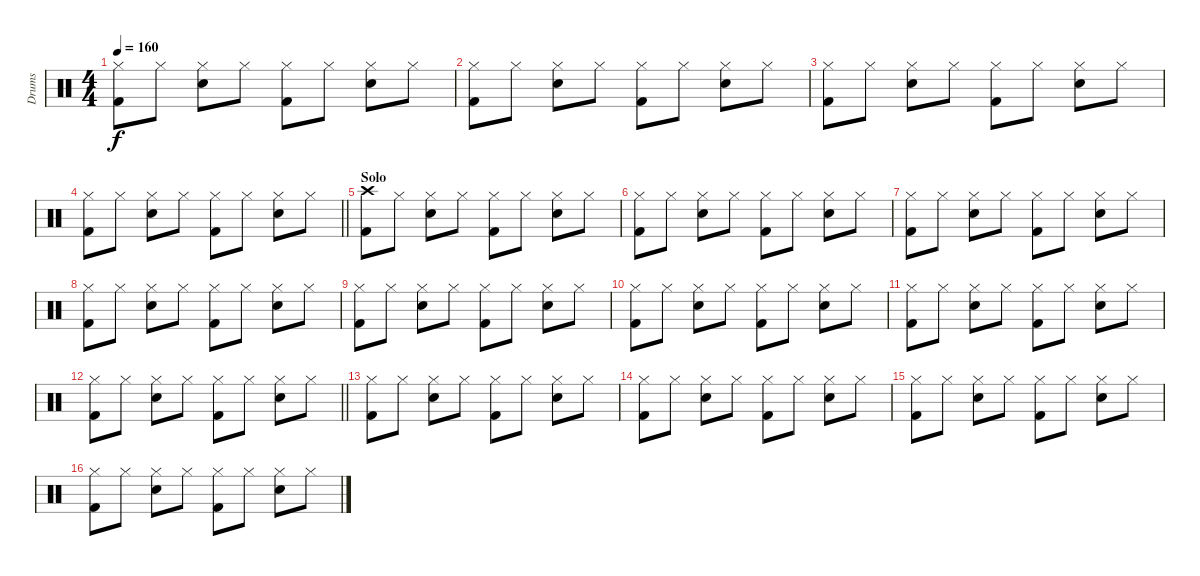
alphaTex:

\track ("Drums" "Drums") {instrument percussion}
\staff {score}
\articulation defaults
\ts (4 4)
\tempo 160
\clef neutral
\ks c
("Hi-Hat (closed)" "Kick (hit) 2").8{dy f} "Hi-Hat (closed)".8 ("Hi-Hat (closed)" "Snare (hit) 2").8 "Hi-Hat (closed)".8 ("Hi-Hat (closed)" "Kick (hit) 2").8 "Hi-Hat (closed)".8 ("Hi-Hat (closed)" "Snare (hit) 2").8 "Hi-Hat (closed)".8 |
("Hi-Hat (closed)" "Kick (hit) 2").8 "Hi-Hat (closed)".8 ("Hi-Hat (closed)" "Snare (hit) 2").8 "Hi-Hat (closed)".8 ("Hi-Hat (closed)" "Kick (hit) 2").8 "Hi-Hat (closed)".8 ("Hi-Hat (closed)" "Snare (hit) 2").8 "Hi-Hat (closed)".8 |
("Hi-Hat (closed)" "Kick (hit) 2").8 "Hi-Hat (closed)".8 ("Hi-Hat (closed)" "Snare (hit) 2").8 "Hi-Hat (closed)".8 ("Hi-Hat (closed)" "Kick (hit) 2").8 "Hi-Hat (closed)".8 ("Hi-Hat (closed)" "Snare (hit) 2").8 "Hi-Hat (closed)".8 |
\barLineRight lightlight
("Hi-Hat (closed)" "Kick (hit) 2").8 "Hi-Hat (closed)".8 ("Hi-Hat (closed)" "Snare (hit) 2").8 "Hi-Hat (closed)".8 ("Hi-Hat (closed)" "Kick (hit) 2").8 "Hi-Hat (closed)".8 ("Hi-Hat (closed)" "Snare (hit) 2").8 "Hi-Hat (closed)".8 |
\section ("" "Solo")
("Crash high (hit)" "Kick (hit) 2").8 "Hi-Hat (closed)".8 ("Hi-Hat (closed)" "Snare (hit) 2").8 "Hi-Hat (closed)".8 ("Hi-Hat (closed)" "Kick (hit) 2").8 "Hi-Hat (closed)".8 ("Hi-Hat (closed)" "Snare (hit) 2").8 "Hi-Hat (closed)".8 |
("Hi-Hat (closed)" "Kick (hit) 2").8 "Hi-Hat (closed)".8 ("Hi-Hat (closed)" "Snare (hit) 2").8 "Hi-Hat (closed)".8 ("Hi-Hat (closed)" "Kick (hit) 2").8 "Hi-Hat (closed)".8 ("Hi-Hat (closed)" "Snare (hit) 2").8 "Hi-Hat (closed)".8 |
("Hi-Hat (closed)" "Kick (hit) 2").8 "Hi-Hat (closed)".8 ("Hi-Hat (closed)" "Snare (hit) 2").8 "Hi-Hat (closed)".8 ("Hi-Hat (closed)" "Kick (hit) 2").8 "Hi-Hat (closed)".8 ("Hi-Hat (closed)" "Snare (hit) 2").8 "Hi-Hat (closed)".8 |
("Hi-Hat (closed)" "Kick (hit) 2").8 "Hi-Hat (closed)".8 ("Hi-Hat (closed)" "Snare (hit) 2").8 "Hi-Hat (closed)".8 ("Hi-Hat (closed)" "Kick (hit) 2").8 "Hi-Hat (closed)".8 ("Hi-Hat (closed)" "Snare (hit) 2").8 "Hi-Hat (closed)".8 |
("Hi-Hat (closed)" "Kick (hit) 2").8 "Hi-Hat (closed)".8 ("Hi-Hat (closed)" "Snare (hit) 2").8 "Hi-Hat (closed)".8 ("Hi-Hat (closed)" "Kick (hit) 2").8 "Hi-Hat (closed)".8 ("Hi-Hat (closed)" "Snare (hit) 2").8 "Hi-Hat (closed)".8 |
("Hi-Hat (closed)" "Kick (hit) 2").8 "Hi-Hat (closed)".8 ("Hi-Hat (closed)" "Snare (hit) 2").8 "Hi-Hat (closed)".8 ("Hi-Hat (closed)" "Kick (hit) 2").8 "Hi-Hat (closed)".8 ("Hi-Hat (closed)" "Snare (hit) 2").8 "Hi-Hat (closed)".8 |
("Hi-Hat (closed)" "Kick (hit) 2").8 "Hi-Hat (closed)".8 ("Hi-Hat (closed)" "Snare (hit) 2").8 "Hi-Hat (closed)".8 ("Hi-Hat (closed)" "Kick (hit) 2").8 "Hi-Hat (closed)".8 ("Hi-Hat (closed)" "Snare (hit) 2").8 "Hi-Hat (closed)".8 |
\barLineRight lightlight
("Hi-Hat (closed)" "Kick (hit) 2").8 "Hi-Hat (closed)".8 ("Hi-Hat (closed)" "Snare (hit) 2").8 "Hi-Hat (closed)".8 ("Hi-Hat (closed)" "Kick (hit) 2").8 "Hi-Hat (closed)".8 ("Hi-Hat (closed)" "Snare (hit) 2").8 "Hi-Hat (closed)".8 |
("Hi-Hat (closed)" "Kick (hit) 2").8 "Hi-Hat (closed)".8 ("Hi-Hat (closed)" "Snare (hit) 2").8 "Hi-Hat (closed)".8 ("Hi-Hat (closed)" "Kick (hit) 2").8 "Hi-Hat (closed)".8 ("Hi-Hat (closed)" "Snare (hit) 2").8 "Hi-Hat (closed)".8 |
("Hi-Hat (closed)" "Kick (hit) 2").8 "Hi-Hat (closed)".8 ("Hi-Hat (closed)" "Snare (hit) 2").8 "Hi-Hat (closed)".8 ("Hi-Hat (closed)" "Kick (hit) 2").8 "Hi-Hat (closed)".8 ("Hi-Hat (closed)" "Snare (hit) 2").8 "Hi-Hat (closed)".8 |
("Hi-Hat (closed)" "Kick (hit) 2").8 "Hi-Hat (closed)".8 ("Hi-Hat (closed)" "Snare (hit) 2").8 "Hi-Hat (closed)".8 ("Hi-Hat (closed)" "Kick (hit) 2").8 "Hi-Hat (closed)".8 ("Hi-Hat (closed)" "Snare (hit) 2").8 "Hi-Hat (closed)".8 |
("Hi-Hat (closed)" "Kick (hit) 2").8 "Hi-Hat (closed)".8 ("Hi-Hat (closed)" "Snare (hit) 2").8 "Hi-Hat (closed)".8 ("Hi-Hat (closed)" "Kick (hit) 2").8 "Hi-Hat (closed)".8 ("Hi-Hat (closed)" "Snare (hit) 2").8 "Hi-Hat (closed)".8
